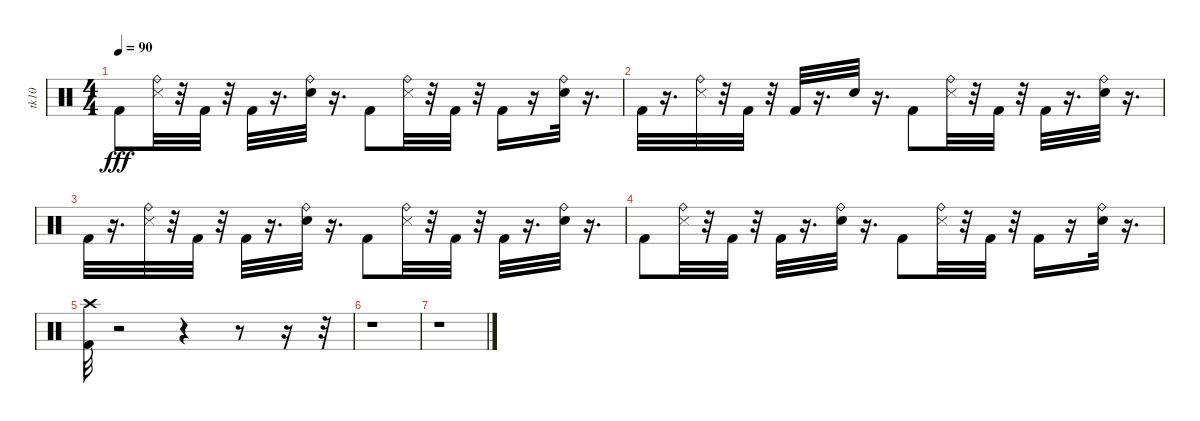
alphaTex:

\track ("tk10" "tk10") {instrument percussion}
\staff {score}
\articulation defaults
\ts (4 4)
\tempo 90
\clef neutral
\ks c "Kick (hit) 2".8{dy fff}
("Ride (bell)" "Snare (side stick) 3").32 r.32 "Kick (hit) 2".32 r.32 "Kick (hit) 2".32 r.16{d} ("Ride (bell)" "Electric Snare (hit)").32 r.16{d} "Kick (hit) 2".8 ("Ride (bell)" "Snare (side stick) 3").32 r.32 "Kick (hit) 2".32 r.32 "Kick (hit) 2".16 r.16 ("Ride (bell)" "Electric Snare (hit)").32 r.16{d} |
"Kick (hit) 2".32 r.16{d} ("Ride (bell)" "Snare (side stick) 3").32 r.32 "Kick (hit) 2".32 r.32 "Kick (hit) 2".32 r.16{d} "Electric Snare (hit)".32 r.16{d} "Kick (hit) 2".8 ("Ride (bell)" "Snare (side stick) 3").32 r.32 "Kick (hit) 2".32 r.32 "Kick (hit) 2".32 r.16{d} ("Ride (bell)" "Electric Snare (hit)").32 r.16{d} |
"Kick (hit) 2".32 r.16{d} ("Ride (bell)" "Snare (side stick) 3").32 r.32 "Kick (hit) 2".32 r.32 "Kick (hit) 2".32 r.16{d} ("Electric Snare (hit)" "Ride (bell)").32 r.16{d} "Kick (hit) 2".8 ("Ride (bell)" "Snare (side stick) 3").32 r.32 "Kick (hit) 2".32 r.32 "Kick (hit) 2".32 r.16{d} ("Ride (bell)" "Electric Snare (hit)").32 r.16{d} |
"Kick (hit) 2".8 ("Ride (bell)" "Snare (side stick) 3").32 r.32 "Kick (hit) 2".32 r.32 "Kick (hit) 2".32 r.16{d} ("Ride (bell)" "Electric Snare (hit)").32 r.16{d} "Kick (hit) 2".8 ("Ride (bell)" "Snare (side stick) 3").32 r.32 "Kick (hit) 2".32 r.32 "Kick (hit) 2".16 r.16 ("Ride (bell)" "Electric Snare (hit)").32 r.16{d} |
("Crash high (hit)" "Kick (hit) 2").32 r.2 r.4 r.8 r.16 r.32 |
r.1 |
r.1
